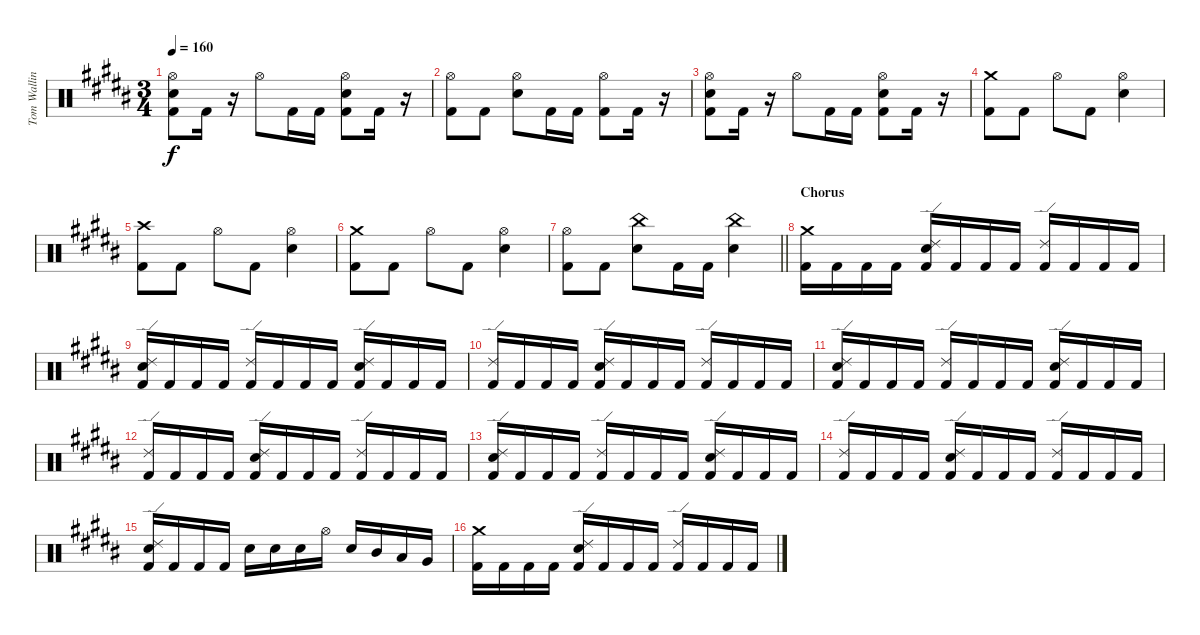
\track ("Tom Walling (drums)" "Tom Wallin") {instrument percussion}
\staff {score}
\articulation defaults
\ts (3 4)
\tempo 160
\clef neutral
\ks g#minor
("Kick (hit) 2" "Electric Snare (hit)" "Hi-Hat (open)").8{dy f} "Kick (hit) 2".16 r.16 "Hi-Hat (open)".8 "Kick (hit) 2".16 "Kick (hit) 2".16 ("Kick (hit) 2" "Electric Snare (hit)" "Hi-Hat (open)").8 "Kick (hit) 2".16 r.16 |
("Hi-Hat (open)" "Kick (hit) 2").8 "Kick (hit) 2".8 ("Electric Snare (hit)" "Hi-Hat (open)").8 "Kick (hit) 2".16 "Kick (hit) 2".16 ("Kick (hit) 2" "Hi-Hat (open)").8 "Kick (hit) 2".16 r.16 |
("Kick (hit) 2" "Electric Snare (hit)" "Hi-Hat (open)").8 "Kick (hit) 2".16 r.16 "Hi-Hat (open)".8 "Kick (hit) 2".16 "Kick (hit) 2".16 ("Kick (hit) 2" "Electric Snare (hit)" "Hi-Hat (open)").8 "Kick (hit) 2".16 r.16 |
("Crash medium (hit)" "Kick (hit) 2").8 "Kick (hit) 2".8 "Hi-Hat (open)".8 "Kick (hit) 2".8 ("Hi-Hat (open)" "Electric Snare (hit)").4 |
("Crash high (hit)" "Kick (hit) 2").8 "Kick (hit) 2".8 "Hi-Hat (open)".8 "Kick (hit) 2".8 ("Hi-Hat (open)" "Electric Snare (hit)").4 |
("Crash medium (hit)" "Kick (hit) 2").8 "Kick (hit) 2".8 "Hi-Hat (open)".8 "Kick (hit) 2".8 ("Hi-Hat (open)" "Electric Snare (hit)").4 |
\barLineRight lightlight
("Hi-Hat (open)" "Kick (hit) 2").8 "Kick (hit) 2".8 ("China (hit)" "Electric Snare (hit)").8 "Kick (hit) 2".16 "Kick (hit) 2".16 ("China (hit)" "Electric Snare (hit)").4 |
\section ("" "Chorus")
("Kick (hit) 2" "Crash medium (hit)").16 "Kick (hit) 2".16 "Kick (hit) 2".16 "Kick (hit) 2".16 ("Electric Snare (hit)" "Kick (hit) 2" "Ride (edge) 2").16 "Kick (hit) 2".16 "Kick (hit) 2".16 "Kick (hit) 2".16 ("Kick (hit) 2" "Ride (edge) 2").16 "Kick (hit) 2".16 "Kick (hit) 2".16 "Kick (hit) 2".16 |
("Electric Snare (hit)" "Kick (hit) 2" "Ride (edge) 2").16 "Kick (hit) 2".16 "Kick (hit) 2".16 "Kick (hit) 2".16 ("Kick (hit) 2" "Ride (edge) 2").16 "Kick (hit) 2".16 "Kick (hit) 2".16 "Kick (hit) 2".16 ("Electric Snare (hit)" "Kick (hit) 2" "Ride (edge) 2").16 "Kick (hit) 2".16 "Kick (hit) 2".16 "Kick (hit) 2".16 |
("Ride (edge) 2" "Kick (hit) 2").16 "Kick (hit) 2".16 "Kick (hit) 2".16 "Kick (hit) 2".16 ("Electric Snare (hit)" "Kick (hit) 2" "Ride (edge) 2").16 "Kick (hit) 2".16 "Kick (hit) 2".16 "Kick (hit) 2".16 ("Kick (hit) 2" "Ride (edge) 2").16 "Kick (hit) 2".16 "Kick (hit) 2".16 "Kick (hit) 2".16 |
("Electric Snare (hit)" "Kick (hit) 2" "Ride (edge) 2").16 "Kick (hit) 2".16 "Kick (hit) 2".16 "Kick (hit) 2".16 ("Kick (hit) 2" "Ride (edge) 2").16 "Kick (hit) 2".16 "Kick (hit) 2".16 "Kick (hit) 2".16 ("Electric Snare (hit)" "Kick (hit) 2" "Ride (edge) 2").16 "Kick (hit) 2".16 "Kick (hit) 2".16 "Kick (hit) 2".16 |
("Ride (edge) 2" "Kick (hit) 2").16 "Kick (hit) 2".16 "Kick (hit) 2".16 "Kick (hit) 2".16 ("Electric Snare (hit)" "Kick (hit) 2" "Ride (edge) 2").16 "Kick (hit) 2".16 "Kick (hit) 2".16 "Kick (hit) 2".16 ("Kick (hit) 2" "Ride (edge) 2").16 "Kick (hit) 2".16 "Kick (hit) 2".16 "Kick (hit) 2".16 |
("Electric Snare (hit)" "Kick (hit) 2" "Ride (edge) 2").16 "Kick (hit) 2".16 "Kick (hit) 2".16 "Kick (hit) 2".16 ("Kick (hit) 2" "Ride (edge) 2").16 "Kick (hit) 2".16 "Kick (hit) 2".16 "Kick (hit) 2".16 ("Electric Snare (hit)" "Kick (hit) 2" "Ride (edge) 2").16 "Kick (hit) 2".16 "Kick (hit) 2".16 "Kick (hit) 2".16 |
("Ride (edge) 2" "Kick (hit) 2").16 "Kick (hit) 2".16 "Kick (hit) 2".16 "Kick (hit) 2".16 ("Electric Snare (hit)" "Kick (hit) 2" "Ride (edge) 2").16 "Kick (hit) 2".16 "Kick (hit) 2".16 "Kick (hit) 2".16 ("Kick (hit) 2" "Ride (edge) 2").16 "Kick (hit) 2".16 "Kick (hit) 2".16 "Kick (hit) 2".16 |
("Electric Snare (hit)" "Kick (hit) 2" "Ride (edge) 2").16 "Kick (hit) 2".16 "Kick (hit) 2".16 "Kick (hit) 2".16 "Electric Snare (hit)".16 "Electric Snare (hit)".16 "Electric Snare (hit)".16 "Hi-Hat (open)".16 "Electric Snare (hit)".16 "Mid Tom (hit)".16 "Low Tom (hit)".16 "Very Low Tom (hit)".16 |
("Kick (hit) 2" "Crash medium (hit)").16 "Kick (hit) 2".16 "Kick (hit) 2".16 "Kick (hit) 2".16 ("Electric Snare (hit)" "Kick (hit) 2" "Ride (edge) 2").16 "Kick (hit) 2".16 "Kick (hit) 2".16 "Kick (hit) 2".16 ("Kick (hit) 2" "Ride (edge) 2").16 "Kick (hit) 2".16 "Kick (hit) 2".16 "Kick (hit) 2".16
